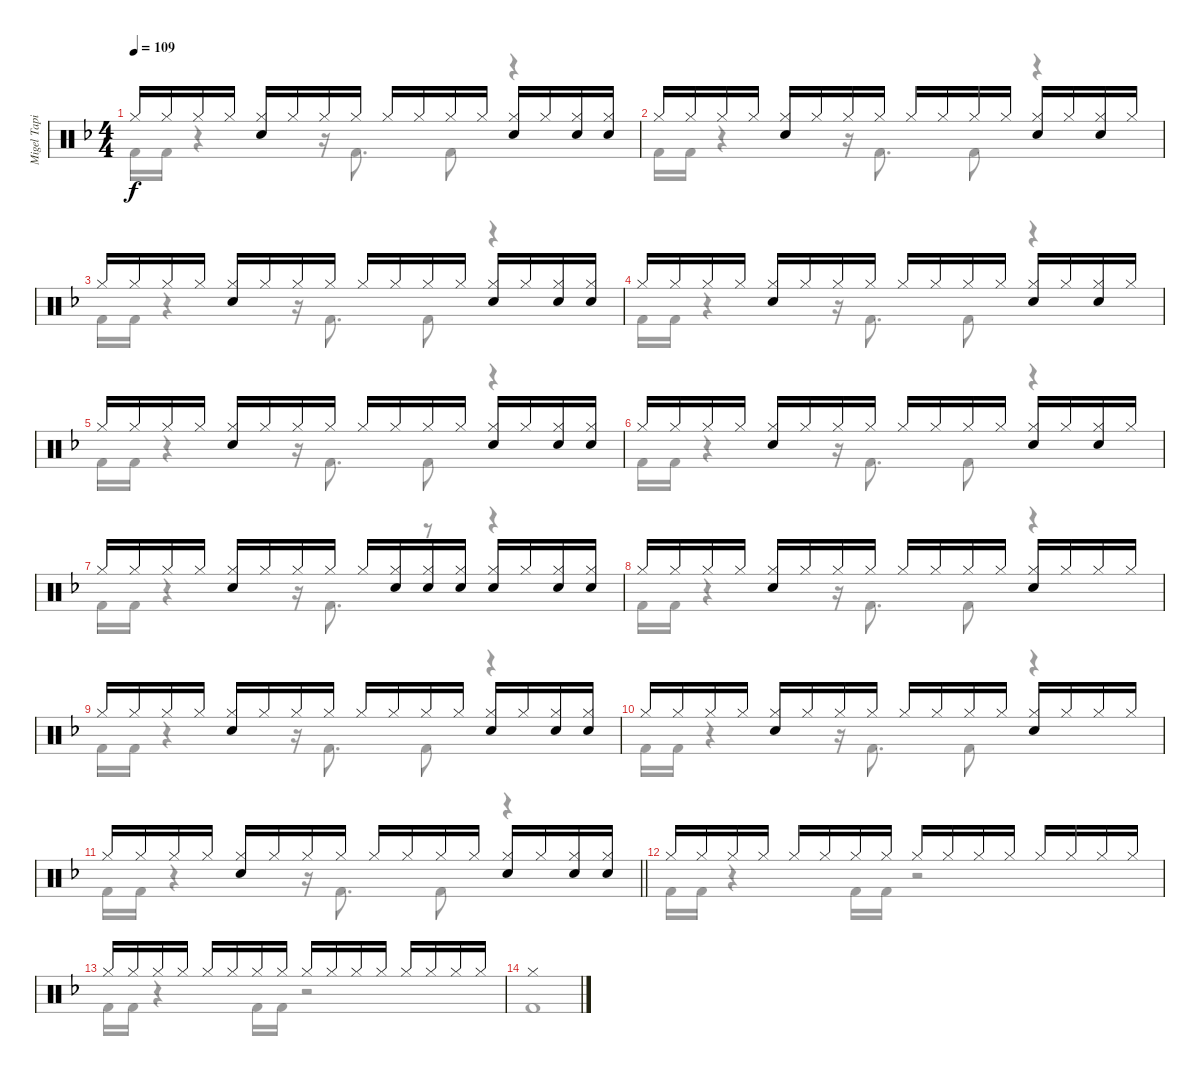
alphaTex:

\track ("Migel Tapia (Batería)" "Migel Tapi") {instrument percussion}
\staff {score}
\articulation defaults
\voice
\ts (4 4)
\tempo 109
\clef neutral
\ks dminor "Hi-Hat (closed)".16{dy f} "Hi-Hat (closed)".16 "Hi-Hat (closed)".16 "Hi-Hat (closed)".16
("Hi-Hat (closed)" "Snare (hit) 2").16 "Hi-Hat (closed)".16 "Hi-Hat (closed)".16 "Hi-Hat (closed)".16 "Hi-Hat (closed)".16 "Hi-Hat (closed)".16 "Hi-Hat (closed)".16 "Hi-Hat (closed)".16 ("Hi-Hat (closed)" "Snare (hit) 2").16 "Hi-Hat (closed)".16 ("Hi-Hat (closed)" "Snare (hit) 2").16 ("Hi-Hat (closed)" "Snare (hit) 2").16 |
"Hi-Hat (closed)".16 "Hi-Hat (closed)".16 "Hi-Hat (closed)".16 "Hi-Hat (closed)".16 ("Hi-Hat (closed)" "Snare (hit) 2").16 "Hi-Hat (closed)".16 "Hi-Hat (closed)".16 "Hi-Hat (closed)".16 "Hi-Hat (closed)".16 "Hi-Hat (closed)".16 "Hi-Hat (closed)".16 "Hi-Hat (closed)".16 ("Hi-Hat (closed)" "Snare (hit) 2").16 "Hi-Hat (closed)".16 ("Hi-Hat (closed)" "Snare (hit) 2").16 "Hi-Hat (closed)".16 |
"Hi-Hat (closed)".16 "Hi-Hat (closed)".16 "Hi-Hat (closed)".16 "Hi-Hat (closed)".16 ("Hi-Hat (closed)" "Snare (hit) 2").16 "Hi-Hat (closed)".16 "Hi-Hat (closed)".16 "Hi-Hat (closed)".16 "Hi-Hat (closed)".16 "Hi-Hat (closed)".16 "Hi-Hat (closed)".16 "Hi-Hat (closed)".16 ("Hi-Hat (closed)" "Snare (hit) 2").16 "Hi-Hat (closed)".16 ("Hi-Hat (closed)" "Snare (hit) 2").16 ("Hi-Hat (closed)" "Snare (hit) 2").16 |
"Hi-Hat (closed)".16 "Hi-Hat (closed)".16 "Hi-Hat (closed)".16 "Hi-Hat (closed)".16 ("Hi-Hat (closed)" "Snare (hit) 2").16 "Hi-Hat (closed)".16 "Hi-Hat (closed)".16 "Hi-Hat (closed)".16 "Hi-Hat (closed)".16 "Hi-Hat (closed)".16 "Hi-Hat (closed)".16 "Hi-Hat (closed)".16 ("Hi-Hat (closed)" "Snare (hit) 2").16 "Hi-Hat (closed)".16 ("Hi-Hat (closed)" "Snare (hit) 2").16 "Hi-Hat (closed)".16 |
"Hi-Hat (closed)".16 "Hi-Hat (closed)".16 "Hi-Hat (closed)".16 "Hi-Hat (closed)".16 ("Hi-Hat (closed)" "Snare (hit) 2").16 "Hi-Hat (closed)".16 "Hi-Hat (closed)".16 "Hi-Hat (closed)".16 "Hi-Hat (closed)".16 "Hi-Hat (closed)".16 "Hi-Hat (closed)".16 "Hi-Hat (closed)".16 ("Hi-Hat (closed)" "Snare (hit) 2").16 "Hi-Hat (closed)".16 ("Hi-Hat (closed)" "Snare (hit) 2").16 ("Hi-Hat (closed)" "Snare (hit) 2").16 |
"Hi-Hat (closed)".16 "Hi-Hat (closed)".16 "Hi-Hat (closed)".16 "Hi-Hat (closed)".16 ("Hi-Hat (closed)" "Snare (hit) 2").16 "Hi-Hat (closed)".16 "Hi-Hat (closed)".16 "Hi-Hat (closed)".16 "Hi-Hat (closed)".16 "Hi-Hat (closed)".16 "Hi-Hat (closed)".16 "Hi-Hat (closed)".16 ("Hi-Hat (closed)" "Snare (hit) 2").16 "Hi-Hat (closed)".16 ("Hi-Hat (closed)" "Snare (hit) 2").16 "Hi-Hat (closed)".16 |
"Hi-Hat (closed)".16 "Hi-Hat (closed)".16 "Hi-Hat (closed)".16 "Hi-Hat (closed)".16 ("Hi-Hat (closed)" "Snare (hit) 2").16 "Hi-Hat (closed)".16 "Hi-Hat (closed)".16 "Hi-Hat (closed)".16 "Hi-Hat (closed)".16 ("Hi-Hat (closed)" "Snare (hit) 2").16 ("Hi-Hat (closed)" "Snare (hit) 2").16 ("Hi-Hat (closed)" "Snare (hit) 2").16 ("Hi-Hat (closed)" "Snare (hit) 2").16 "Hi-Hat (closed)".16 ("Hi-Hat (closed)" "Snare (hit) 2").16 ("Hi-Hat (closed)" "Snare (hit) 2").16 |
"Hi-Hat (closed)".16 "Hi-Hat (closed)".16 "Hi-Hat (closed)".16 "Hi-Hat (closed)".16 ("Hi-Hat (closed)" "Snare (hit) 2").16 "Hi-Hat (closed)".16 "Hi-Hat (closed)".16 "Hi-Hat (closed)".16 "Hi-Hat (closed)".16 "Hi-Hat (closed)".16 "Hi-Hat (closed)".16 "Hi-Hat (closed)".16 ("Hi-Hat (closed)" "Snare (hit) 2").16 "Hi-Hat (closed)".16 "Hi-Hat (closed)".16 "Hi-Hat (closed)".16 |
"Hi-Hat (closed)".16 "Hi-Hat (closed)".16 "Hi-Hat (closed)".16 "Hi-Hat (closed)".16 ("Hi-Hat (closed)" "Snare (hit) 2").16 "Hi-Hat (closed)".16 "Hi-Hat (closed)".16 "Hi-Hat (closed)".16 "Hi-Hat (closed)".16 "Hi-Hat (closed)".16 "Hi-Hat (closed)".16 "Hi-Hat (closed)".16 ("Hi-Hat (closed)" "Snare (hit) 2").16 "Hi-Hat (closed)".16 ("Hi-Hat (closed)" "Snare (hit) 2").16 ("Hi-Hat (closed)" "Snare (hit) 2").16 |
"Hi-Hat (closed)".16 "Hi-Hat (closed)".16 "Hi-Hat (closed)".16 "Hi-Hat (closed)".16 ("Hi-Hat (closed)" "Snare (hit) 2").16 "Hi-Hat (closed)".16 "Hi-Hat (closed)".16 "Hi-Hat (closed)".16 "Hi-Hat (closed)".16 "Hi-Hat (closed)".16 "Hi-Hat (closed)".16 "Hi-Hat (closed)".16 ("Hi-Hat (closed)" "Snare (hit) 2").16 "Hi-Hat (closed)".16 "Hi-Hat (closed)".16 "Hi-Hat (closed)".16 |
\barLineRight lightlight "Hi-Hat (closed)".16 "Hi-Hat (closed)".16 "Hi-Hat (closed)".16 "Hi-Hat (closed)".16
("Hi-Hat (closed)" "Snare (hit) 2").16 "Hi-Hat (closed)".16 "Hi-Hat (closed)".16 "Hi-Hat (closed)".16 "Hi-Hat (closed)".16 "Hi-Hat (closed)".16 "Hi-Hat (closed)".16 "Hi-Hat (closed)".16 ("Hi-Hat (closed)" "Snare (hit) 2").16 "Hi-Hat (closed)".16 ("Hi-Hat (closed)" "Snare (hit) 2").16 ("Hi-Hat (closed)" "Snare (hit) 2").16 |
"Hi-Hat (closed)".16 "Hi-Hat (closed)".16 "Hi-Hat (closed)".16 "Hi-Hat (closed)".16 "Hi-Hat (closed)".16 "Hi-Hat (closed)".16 "Hi-Hat (closed)".16 "Hi-Hat (closed)".16 "Hi-Hat (closed)".16 "Hi-Hat (closed)".16 "Hi-Hat (closed)".16 "Hi-Hat (closed)".16 "Hi-Hat (closed)".16 "Hi-Hat (closed)".16 "Hi-Hat (closed)".16 "Hi-Hat (closed)".16 |
"Hi-Hat (closed)".16 "Hi-Hat (closed)".16 "Hi-Hat (closed)".16 "Hi-Hat (closed)".16 "Hi-Hat (closed)".16 "Hi-Hat (closed)".16 "Hi-Hat (closed)".16 "Hi-Hat (closed)".16 "Hi-Hat (closed)".16 "Hi-Hat (closed)".16 "Hi-Hat (closed)".16 "Hi-Hat (closed)".16 "Hi-Hat (closed)".16 "Hi-Hat (closed)".16 "Hi-Hat (closed)".16 "Hi-Hat (closed)".16 |
"Hi-Hat (closed)".1 |
|
\voice
\clef neutral
\ottava regular
\simile none
\ks dminor "Kick (hit) 2".16{dy f} "Kick (hit) 2".16
r.4 r.16 "Kick (hit) 2".8{d} "Kick (hit) 2".8 r.4 |
"Kick (hit) 2".16 "Kick (hit) 2".16 r.4 r.16 "Kick (hit) 2".8{d} "Kick (hit) 2".8 r.4 |
"Kick (hit) 2".16 "Kick (hit) 2".16 r.4 r.16 "Kick (hit) 2".8{d} "Kick (hit) 2".8 r.4 |
"Kick (hit) 2".16 "Kick (hit) 2".16 r.4 r.16 "Kick (hit) 2".8{d} "Kick (hit) 2".8 r.4 |
"Kick (hit) 2".16 "Kick (hit) 2".16 r.4 r.16 "Kick (hit) 2".8{d} "Kick (hit) 2".8 r.4 |
"Kick (hit) 2".16 "Kick (hit) 2".16 r.4 r.16 "Kick (hit) 2".8{d} "Kick (hit) 2".8 r.4 |
"Kick (hit) 2".16 "Kick (hit) 2".16 r.4 r.16 "Kick (hit) 2".8{d} r.8 r.4 |
"Kick (hit) 2".16 "Kick (hit) 2".16 r.4 r.16 "Kick (hit) 2".8{d} "Kick (hit) 2".8 r.4 |
"Kick (hit) 2".16 "Kick (hit) 2".16 r.4 r.16 "Kick (hit) 2".8{d} "Kick (hit) 2".8 r.4 |
"Kick (hit) 2".16 "Kick (hit) 2".16 r.4 r.16 "Kick (hit) 2".8{d} "Kick (hit) 2".8 r.4 |
\barLineRight lightlight "Kick (hit) 2".16 "Kick (hit) 2".16
r.4 r.16 "Kick (hit) 2".8{d} "Kick (hit) 2".8 r.4 |
"Kick (hit) 2".16 "Kick (hit) 2".16 r.4 "Kick (hit) 2".16 "Kick (hit) 2".16 r.2 |
"Kick (hit) 2".16 "Kick (hit) 2".16 r.4 "Kick (hit) 2".16 "Kick (hit) 2".16 r.2 |
"Kick (hit) 2".1 |
|
